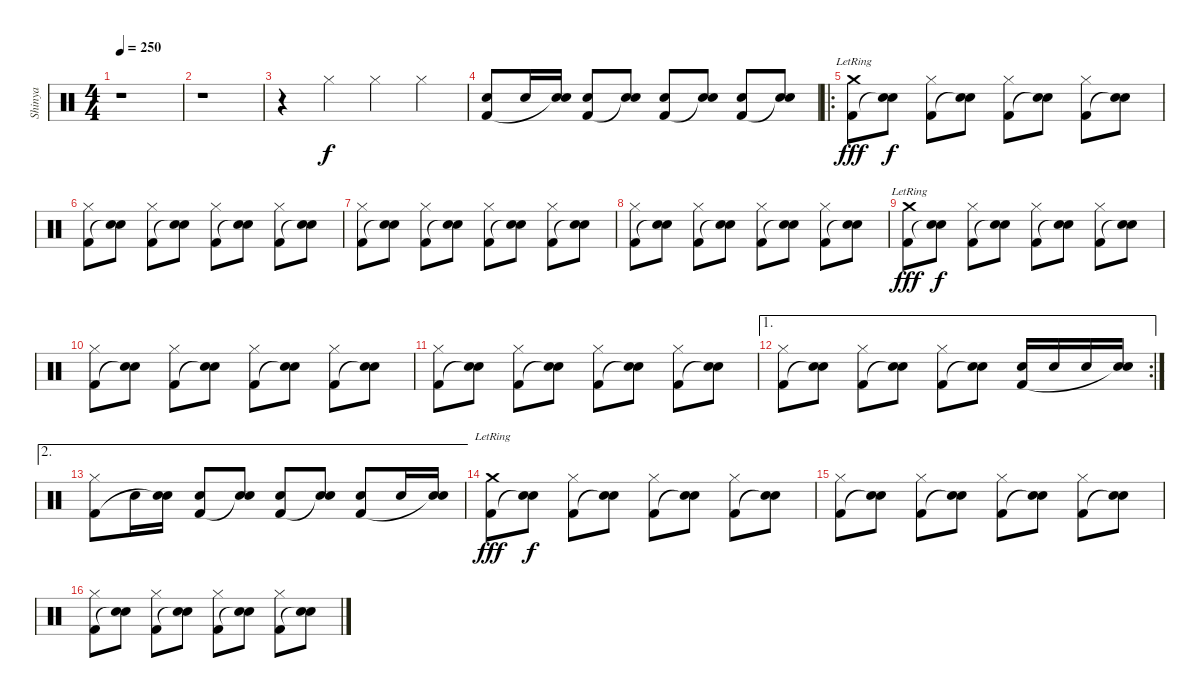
\track ("Shinya" "Shinya") {instrument percussion}
\staff {score}
\articulation defaults
\ts (4 4)
\tempo 250
\clef neutral
\ks c
r.1{dy f} |
r.1 |
r.4 "Hi-Hat (closed)".4 "Hi-Hat (closed)".4 "Hi-Hat (closed)".4 |
("Electric Snare (hit)" "Kick (hit) 2").8 "Electric Snare (hit)".16 ("Electric Snare (hit)" "Snare (hit)"{t}).16 ("Electric Snare (hit)" "Kick (hit) 2").8 ("Electric Snare (hit)" "Snare (hit)"{t}).8 ("Electric Snare (hit)" "Kick (hit) 2").8 ("Electric Snare (hit)" "Snare (hit)"{t}).8 ("Electric Snare (hit)" "Kick (hit) 2").8 ("Electric Snare (hit)" "Snare (hit)"{t}).8 |
\ro
("Crash medium (hit)"{lr} "Kick (hit) 2").8{dy fff} ("Electric Snare (hit)" "Snare (hit)"{t}).8{dy f} ("Hi-Hat (closed)" "Kick (hit) 2").8 ("Electric Snare (hit)" "Snare (hit)"{t}).8 ("Hi-Hat (closed)" "Kick (hit) 2").8 ("Electric Snare (hit)" "Snare (hit)"{t}).8 ("Hi-Hat (closed)" "Kick (hit) 2").8 ("Electric Snare (hit)" "Snare (hit)"{t}).8 |
("Hi-Hat (closed)" "Kick (hit) 2").8 ("Electric Snare (hit)" "Snare (hit)"{t}).8 ("Hi-Hat (closed)" "Kick (hit) 2").8 ("Electric Snare (hit)" "Snare (hit)"{t}).8 ("Hi-Hat (closed)" "Kick (hit) 2").8 ("Electric Snare (hit)" "Snare (hit)"{t}).8 ("Hi-Hat (closed)" "Kick (hit) 2").8 ("Electric Snare (hit)" "Snare (hit)"{t}).8 |
("Hi-Hat (closed)" "Kick (hit) 2").8 ("Electric Snare (hit)" "Snare (hit)"{t}).8 ("Hi-Hat (closed)" "Kick (hit) 2").8 ("Electric Snare (hit)" "Snare (hit)"{t}).8 ("Hi-Hat (closed)" "Kick (hit) 2").8 ("Electric Snare (hit)" "Snare (hit)"{t}).8 ("Hi-Hat (closed)" "Kick (hit) 2").8 ("Electric Snare (hit)" "Snare (hit)"{t}).8 |
("Hi-Hat (closed)" "Kick (hit) 2").8 ("Electric Snare (hit)" "Snare (hit)"{t}).8 ("Hi-Hat (closed)" "Kick (hit) 2").8 ("Electric Snare (hit)" "Snare (hit)"{t}).8 ("Hi-Hat (closed)" "Kick (hit) 2").8 ("Electric Snare (hit)" "Snare (hit)"{t}).8 ("Hi-Hat (closed)" "Kick (hit) 2").8 ("Electric Snare (hit)" "Snare (hit)"{t}).8 |
("Crash medium (hit)"{lr} "Kick (hit) 2").8{dy fff} ("Electric Snare (hit)" "Snare (hit)"{t}).8{dy f} ("Hi-Hat (closed)" "Kick (hit) 2").8 ("Electric Snare (hit)" "Snare (hit)"{t}).8 ("Hi-Hat (closed)" "Kick (hit) 2").8 ("Electric Snare (hit)" "Snare (hit)"{t}).8 ("Hi-Hat (closed)" "Kick (hit) 2").8 ("Electric Snare (hit)" "Snare (hit)"{t}).8 |
("Hi-Hat (closed)" "Kick (hit) 2").8 ("Electric Snare (hit)" "Snare (hit)"{t}).8 ("Hi-Hat (closed)" "Kick (hit) 2").8 ("Electric Snare (hit)" "Snare (hit)"{t}).8 ("Hi-Hat (closed)" "Kick (hit) 2").8 ("Electric Snare (hit)" "Snare (hit)"{t}).8 ("Hi-Hat (closed)" "Kick (hit) 2").8 ("Electric Snare (hit)" "Snare (hit)"{t}).8 |
("Hi-Hat (closed)" "Kick (hit) 2").8 ("Electric Snare (hit)" "Snare (hit)"{t}).8 ("Hi-Hat (closed)" "Kick (hit) 2").8 ("Electric Snare (hit)" "Snare (hit)"{t}).8 ("Hi-Hat (closed)" "Kick (hit) 2").8 ("Electric Snare (hit)" "Snare (hit)"{t}).8 ("Hi-Hat (closed)" "Kick (hit) 2").8 ("Electric Snare (hit)" "Snare (hit)"{t}).8 |
\ae 1
\rc 2
("Hi-Hat (closed)" "Kick (hit) 2").8 ("Electric Snare (hit)" "Snare (hit)"{t}).8 ("Hi-Hat (closed)" "Kick (hit) 2").8 ("Electric Snare (hit)" "Snare (hit)"{t}).8 ("Hi-Hat (closed)" "Kick (hit) 2").8 ("Electric Snare (hit)" "Snare (hit)"{t}).8 ("Electric Snare (hit)" "Kick (hit) 2").16 "Electric Snare (hit)".16 "Electric Snare (hit)".16 ("Electric Snare (hit)" "Snare (hit)"{t}).16 |
\ae 2
("Hi-Hat (closed)" "Kick (hit) 2").8 "Electric Snare (hit)".16 ("Electric Snare (hit)" "Snare (hit)"{t}).16 ("Electric Snare (hit)" "Kick (hit) 2").8 ("Electric Snare (hit)" "Snare (hit)"{t}).8 ("Electric Snare (hit)" "Kick (hit) 2").8 ("Electric Snare (hit)" "Snare (hit)"{t}).8 ("Electric Snare (hit)" "Kick (hit) 2").8 "Electric Snare (hit)".16 ("Electric Snare (hit)" "Snare (hit)"{t}).16 |
("Crash medium (hit)"{lr} "Kick (hit) 2").8{dy fff} ("Electric Snare (hit)" "Snare (hit)"{t}).8{dy f} ("Hi-Hat (closed)" "Kick (hit) 2").8 ("Electric Snare (hit)" "Snare (hit)"{t}).8 ("Hi-Hat (closed)" "Kick (hit) 2").8 ("Electric Snare (hit)" "Snare (hit)"{t}).8 ("Hi-Hat (closed)" "Kick (hit) 2").8 ("Electric Snare (hit)" "Snare (hit)"{t}).8 |
("Hi-Hat (closed)" "Kick (hit) 2").8 ("Electric Snare (hit)" "Snare (hit)"{t}).8 ("Hi-Hat (closed)" "Kick (hit) 2").8 ("Electric Snare (hit)" "Snare (hit)"{t}).8 ("Hi-Hat (closed)" "Kick (hit) 2").8 ("Electric Snare (hit)" "Snare (hit)"{t}).8 ("Hi-Hat (closed)" "Kick (hit) 2").8 ("Electric Snare (hit)" "Snare (hit)"{t}).8 |
("Hi-Hat (closed)" "Kick (hit) 2").8 ("Electric Snare (hit)" "Snare (hit)"{t}).8 ("Hi-Hat (closed)" "Kick (hit) 2").8 ("Electric Snare (hit)" "Snare (hit)"{t}).8 ("Hi-Hat (closed)" "Kick (hit) 2").8 ("Electric Snare (hit)" "Snare (hit)"{t}).8 ("Hi-Hat (closed)" "Kick (hit) 2").8 ("Electric Snare (hit)" "Snare (hit)"{t}).8
